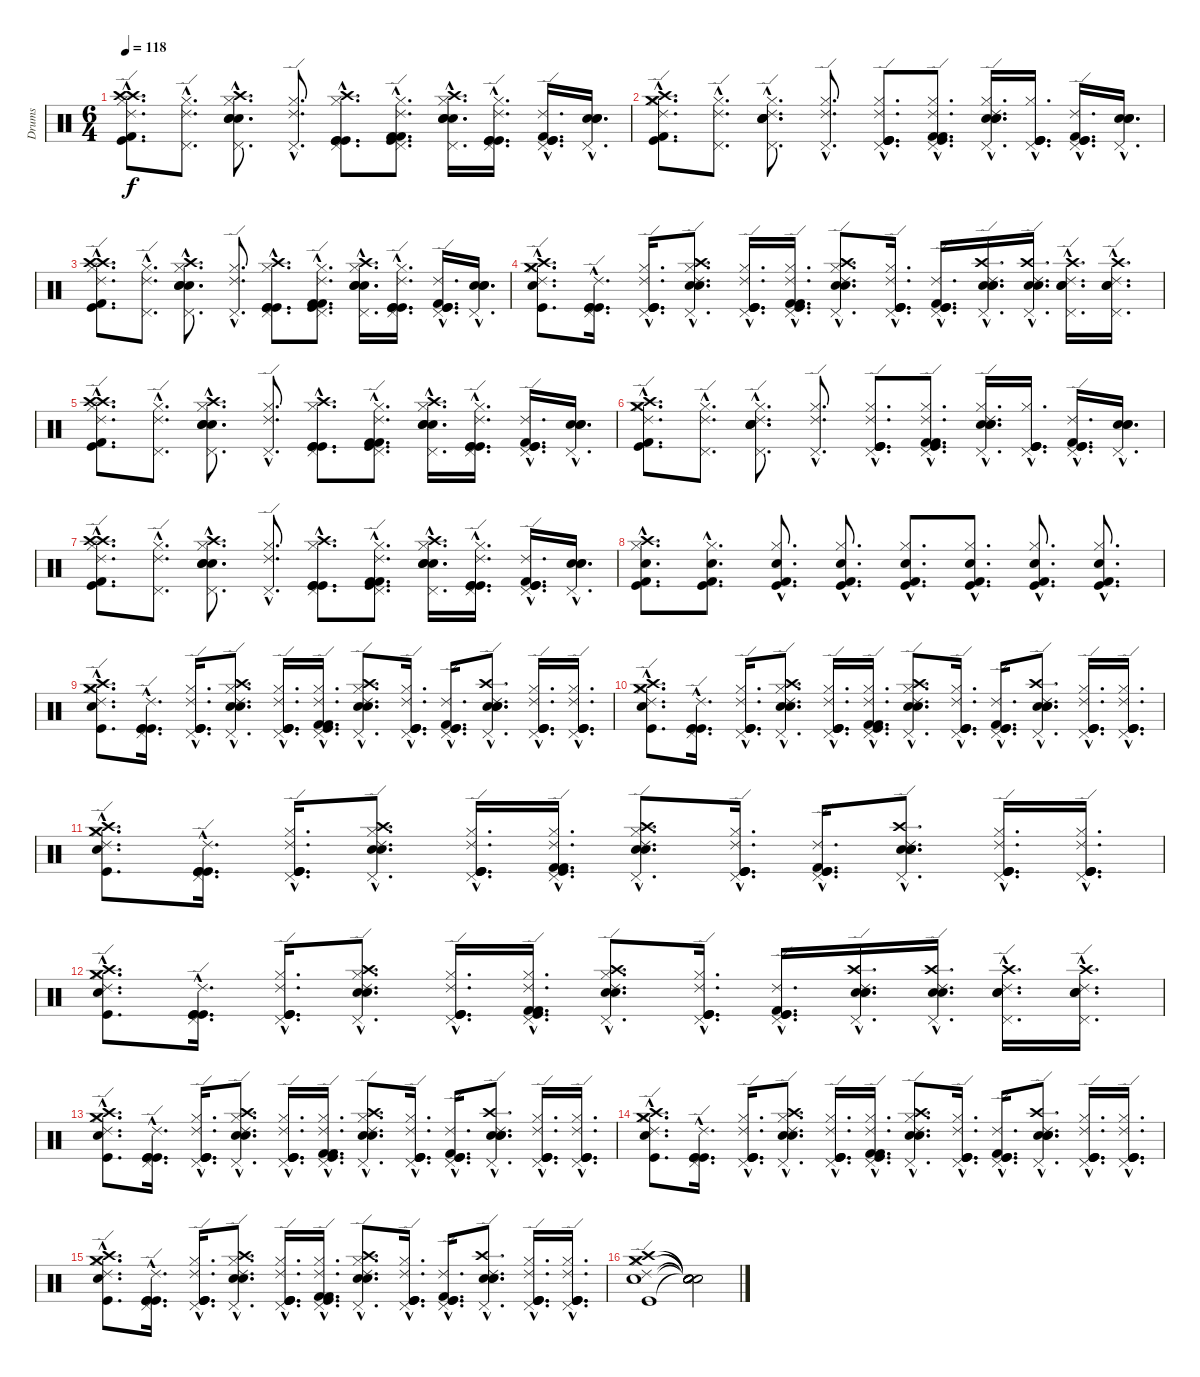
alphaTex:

\track ("Drums" "Drums") {instrument percussion}
\staff {score}
\articulation defaults
\ts (6 4)
\tempo 118
\clef neutral
\ks c
("Ride (edge) 2"{hac} "Crash high (hit)"{hac} "Kick (hit)"{hac} "Kick (hit) 2"{hac} "Hi-Hat (closed)"{hac} "Crash high (hit)"{hac}).8{d dy f} ("Pedal Hi-Hat (hit)"{hac} "Hi-Hat (closed)"{hac} "Ride (edge) 2"{hac}).8{d} ("Pedal Hi-Hat (hit)"{hac} "Electric Snare (hit)"{hac} "Hand Clap (hit)"{hac} "Hand Clap (hit)"{hac} "Hi-Hat (closed)"{hac} "Crash high (hit)"{hac}).8{d} ("Pedal Hi-Hat (hit)"{hac} "Hi-Hat (closed)"{hac} "Ride (edge) 2"{hac}).8{d} ("Pedal Hi-Hat (hit)"{hac} "Kick (hit)"{hac} "Kick (hit)"{hac} "Kick (hit)"{hac} "Hi-Hat (closed)"{hac} "Crash high (hit)"{hac}).8{d} ("Pedal Hi-Hat (hit)"{hac} "Kick (hit)"{hac} "Kick (hit) 2"{hac} "Kick (hit) 2"{hac} "Hi-Hat (closed)"{hac} "Ride (edge) 2"{hac}).8{d} ("Pedal Hi-Hat (hit)"{hac} "Hand Clap (hit)"{hac} "Hand Clap (hit)"{hac} "Electric Snare (hit)"{hac} "Hi-Hat (closed)"{hac} "Crash high (hit)"{hac}).16{d} ("Pedal Hi-Hat (hit)"{hac} "Kick (hit)"{hac} "Kick (hit)"{hac} "Kick (hit)"{hac} "Hi-Hat (closed)"{hac} "Ride (edge) 2"{hac}).16{d} ("Pedal Hi-Hat (hit)"{hac} "Kick (hit)"{hac} "Kick (hit) 2"{hac} "Kick (hit)"{hac} "Ride (edge) 2"{hac}).16{d} ("Pedal Hi-Hat (hit)"{hac} "Electric Snare (hit)"{hac} "Hand Clap (hit)"{hac} "Electric Snare (hit)"{hac}).16{d} |
("Ride (edge) 2"{hac} "Crash high (hit)"{hac} "Kick (hit)"{hac} "Kick (hit) 2"{hac} "Hi-Hat (closed)"{hac} "Crash medium (hit)"{hac}).8{d} ("Pedal Hi-Hat (hit)"{hac} "Hi-Hat (closed)"{hac} "Ride (edge) 2"{hac}).8{d} ("Pedal Hi-Hat (hit)"{hac} "Electric Snare (hit)"{hac} "Hand Clap (hit)"{hac} "Hand Clap (hit)"{hac} "Hi-Hat (closed)"{hac} "Ride (edge) 2"{hac}).8{d} ("Pedal Hi-Hat (hit)"{hac} "Hi-Hat (closed)"{hac} "Ride (edge) 2"{hac}).8{d} ("Pedal Hi-Hat (hit)"{hac} "Kick (hit)"{hac} "Kick (hit)"{hac} "Kick (hit)"{hac} "Hi-Hat (closed)"{hac} "Ride (edge) 2"{hac}).8{d} ("Pedal Hi-Hat (hit)"{hac} "Kick (hit)"{hac} "Kick (hit) 2"{hac} "Kick (hit) 2"{hac} "Hi-Hat (closed)"{hac} "Ride (edge) 2"{hac}).8{d} ("Pedal Hi-Hat (hit)"{hac} "Hand Clap (hit)"{hac} "Hand Clap (hit)"{hac} "Electric Snare (hit)"{hac} "Hi-Hat (closed)"{hac} "Ride (edge) 2"{hac}).16{d} ("Pedal Hi-Hat (hit)"{hac} "Kick (hit)"{hac} "Kick (hit)"{hac} "Kick (hit)"{hac} "Hi-Hat (closed)"{hac}).16{d} ("Pedal Hi-Hat (hit)"{hac} "Kick (hit)"{hac} "Kick (hit) 2"{hac} "Kick (hit)"{hac} "Ride (edge) 2"{hac}).16{d} ("Pedal Hi-Hat (hit)"{hac} "Electric Snare (hit)"{hac} "Hand Clap (hit)"{hac} "Electric Snare (hit)"{hac}).16{d} |
("Ride (edge) 2"{hac} "Crash high (hit)"{hac} "Kick (hit)"{hac} "Kick (hit) 2"{hac} "Hi-Hat (closed)"{hac} "Crash high (hit)"{hac}).8{d} ("Pedal Hi-Hat (hit)"{hac} "Hi-Hat (closed)"{hac} "Ride (edge) 2"{hac}).8{d} ("Pedal Hi-Hat (hit)"{hac} "Electric Snare (hit)"{hac} "Hand Clap (hit)"{hac} "Hand Clap (hit)"{hac} "Hi-Hat (closed)"{hac} "Crash high (hit)"{hac}).8{d} ("Pedal Hi-Hat (hit)"{hac} "Hi-Hat (closed)"{hac} "Ride (edge) 2"{hac}).8{d} ("Pedal Hi-Hat (hit)"{hac} "Kick (hit)"{hac} "Kick (hit)"{hac} "Kick (hit)"{hac} "Hi-Hat (closed)"{hac} "Crash high (hit)"{hac}).8{d} ("Pedal Hi-Hat (hit)"{hac} "Kick (hit)"{hac} "Kick (hit) 2"{hac} "Kick (hit) 2"{hac} "Hi-Hat (closed)"{hac} "Ride (edge) 2"{hac}).8{d} ("Pedal Hi-Hat (hit)"{hac} "Hand Clap (hit)"{hac} "Hand Clap (hit)"{hac} "Electric Snare (hit)"{hac} "Hi-Hat (closed)"{hac} "Crash high (hit)"{hac}).16{d} ("Pedal Hi-Hat (hit)"{hac} "Kick (hit)"{hac} "Kick (hit)"{hac} "Kick (hit)"{hac} "Hi-Hat (closed)"{hac} "Ride (edge) 2"{hac}).16{d} ("Pedal Hi-Hat (hit)"{hac} "Kick (hit)"{hac} "Kick (hit) 2"{hac} "Kick (hit)"{hac} "Ride (edge) 2"{hac}).16{d} ("Pedal Hi-Hat (hit)"{hac} "Electric Snare (hit)"{hac} "Hand Clap (hit)"{hac} "Electric Snare (hit)"{hac}).16{d} |
("Ride (edge) 2"{hac} "Crash high (hit)"{hac} "Kick (hit)"{hac} "Electric Snare (hit)"{hac} "Hi-Hat (closed)"{hac} "Crash medium (hit)"{hac}).8{d} ("Pedal Hi-Hat (hit)"{hac} "Kick (hit)"{hac} "Kick (hit)"{hac} "Kick (hit)"{hac} "Ride (edge) 2"{hac}).16{d} ("Pedal Hi-Hat (hit)"{hac} "Kick (hit)"{hac} "Kick (hit)"{hac} "Kick (hit)"{hac} "Hi-Hat (closed)"{hac} "Ride (edge) 2"{hac}).16{d} ("Pedal Hi-Hat (hit)"{hac} "Crash high (hit)"{hac} "Electric Snare (hit)"{hac} "Electric Snare (hit)"{hac} "Hi-Hat (closed)"{hac} "Ride (edge) 2"{hac}).8{d} ("Pedal Hi-Hat (hit)"{hac} "Kick (hit)"{hac} "Kick (hit)"{hac} "Kick (hit)"{hac} "Hi-Hat (closed)"{hac} "Ride (edge) 2"{hac}).16{d} ("Pedal Hi-Hat (hit)"{hac} "Kick (hit)"{hac} "Kick (hit) 2"{hac} "Kick (hit) 2"{hac} "Hi-Hat (closed)"{hac} "Ride (edge) 2"{hac}).16{d} ("Pedal Hi-Hat (hit)"{hac} "Crash high (hit)"{hac} "Hand Clap (hit)"{hac} "Electric Snare (hit)"{hac} "Hi-Hat (closed)"{hac} "Ride (edge) 2"{hac}).8{d} ("Pedal Hi-Hat (hit)"{hac} "Kick (hit)"{hac} "Kick (hit)"{hac} "Kick (hit)"{hac} "Hi-Hat (closed)"{hac} "Ride (edge) 2"{hac}).16{d} ("Pedal Hi-Hat (hit)"{hac} "Kick (hit)"{hac} "Kick (hit) 2"{hac} "Kick (hit)"{hac} "Ride (edge) 2"{hac}).16{d} ("Pedal Hi-Hat (hit)"{hac} "Electric Snare (hit)"{hac} "Hand Clap (hit)"{hac} "Electric Snare (hit)"{hac} "Crash high (hit)"{hac} "Ride (edge) 2"{hac}).16{d} ("Pedal Hi-Hat (hit)"{hac} "Electric Snare (hit)"{hac} "Electric Snare (hit)"{hac} "Crash high (hit)"{hac} "Ride (edge) 2"{hac}).16{d} ("Pedal Hi-Hat (hit)"{hac} "Electric Snare (hit)"{hac} "Electric Snare (hit)"{hac} "Crash high (hit)"{hac} "Ride (edge) 2"{hac}).16{d} ("Pedal Hi-Hat (hit)"{hac} "Electric Snare (hit)"{hac} "Electric Snare (hit)"{hac} "Crash high (hit)"{hac} "Ride (edge) 2"{hac}).16{d} |
("Ride (edge) 2"{hac} "Crash high (hit)"{hac} "Kick (hit)"{hac} "Kick (hit) 2"{hac} "Hi-Hat (closed)"{hac} "Crash high (hit)"{hac}).8{d} ("Pedal Hi-Hat (hit)"{hac} "Hi-Hat (closed)"{hac} "Ride (edge) 2"{hac}).8{d} ("Pedal Hi-Hat (hit)"{hac} "Electric Snare (hit)"{hac} "Hand Clap (hit)"{hac} "Hand Clap (hit)"{hac} "Hi-Hat (closed)"{hac} "Crash high (hit)"{hac}).8{d} ("Pedal Hi-Hat (hit)"{hac} "Hi-Hat (closed)"{hac} "Ride (edge) 2"{hac}).8{d} ("Pedal Hi-Hat (hit)"{hac} "Kick (hit)"{hac} "Kick (hit)"{hac} "Kick (hit)"{hac} "Hi-Hat (closed)"{hac} "Crash high (hit)"{hac}).8{d} ("Pedal Hi-Hat (hit)"{hac} "Kick (hit)"{hac} "Kick (hit) 2"{hac} "Kick (hit) 2"{hac} "Hi-Hat (closed)"{hac} "Ride (edge) 2"{hac}).8{d} ("Pedal Hi-Hat (hit)"{hac} "Hand Clap (hit)"{hac} "Hand Clap (hit)"{hac} "Electric Snare (hit)"{hac} "Hi-Hat (closed)"{hac} "Crash high (hit)"{hac}).16{d} ("Pedal Hi-Hat (hit)"{hac} "Kick (hit)"{hac} "Kick (hit)"{hac} "Kick (hit)"{hac} "Hi-Hat (closed)"{hac} "Ride (edge) 2"{hac}).16{d} ("Pedal Hi-Hat (hit)"{hac} "Kick (hit)"{hac} "Kick (hit) 2"{hac} "Kick (hit)"{hac} "Ride (edge) 2"{hac}).16{d} ("Pedal Hi-Hat (hit)"{hac} "Electric Snare (hit)"{hac} "Hand Clap (hit)"{hac} "Electric Snare (hit)"{hac}).16{d} |
("Ride (edge) 2"{hac} "Crash high (hit)"{hac} "Kick (hit)"{hac} "Kick (hit) 2"{hac} "Hi-Hat (closed)"{hac} "Crash medium (hit)"{hac}).8{d} ("Pedal Hi-Hat (hit)"{hac} "Hi-Hat (closed)"{hac} "Ride (edge) 2"{hac}).8{d} ("Pedal Hi-Hat (hit)"{hac} "Electric Snare (hit)"{hac} "Hand Clap (hit)"{hac} "Hand Clap (hit)"{hac} "Hi-Hat (closed)"{hac} "Ride (edge) 2"{hac}).8{d} ("Pedal Hi-Hat (hit)"{hac} "Hi-Hat (closed)"{hac} "Ride (edge) 2"{hac}).8{d} ("Pedal Hi-Hat (hit)"{hac} "Kick (hit)"{hac} "Kick (hit)"{hac} "Kick (hit)"{hac} "Hi-Hat (closed)"{hac} "Ride (edge) 2"{hac}).8{d} ("Pedal Hi-Hat (hit)"{hac} "Kick (hit)"{hac} "Kick (hit) 2"{hac} "Kick (hit) 2"{hac} "Hi-Hat (closed)"{hac} "Ride (edge) 2"{hac}).8{d} ("Pedal Hi-Hat (hit)"{hac} "Hand Clap (hit)"{hac} "Hand Clap (hit)"{hac} "Electric Snare (hit)"{hac} "Hi-Hat (closed)"{hac} "Ride (edge) 2"{hac}).16{d} ("Pedal Hi-Hat (hit)"{hac} "Kick (hit)"{hac} "Kick (hit)"{hac} "Kick (hit)"{hac} "Hi-Hat (closed)"{hac}).16{d} ("Pedal Hi-Hat (hit)"{hac} "Kick (hit)"{hac} "Kick (hit) 2"{hac} "Kick (hit)"{hac} "Ride (edge) 2"{hac}).16{d} ("Pedal Hi-Hat (hit)"{hac} "Electric Snare (hit)"{hac} "Hand Clap (hit)"{hac} "Electric Snare (hit)"{hac}).16{d} |
("Ride (edge) 2"{hac} "Crash high (hit)"{hac} "Kick (hit)"{hac} "Kick (hit) 2"{hac} "Hi-Hat (closed)"{hac} "Crash high (hit)"{hac}).8{d} ("Pedal Hi-Hat (hit)"{hac} "Hi-Hat (closed)"{hac} "Ride (edge) 2"{hac}).8{d} ("Pedal Hi-Hat (hit)"{hac} "Electric Snare (hit)"{hac} "Hand Clap (hit)"{hac} "Hand Clap (hit)"{hac} "Hi-Hat (closed)"{hac} "Crash high (hit)"{hac}).8{d} ("Pedal Hi-Hat (hit)"{hac} "Hi-Hat (closed)"{hac} "Ride (edge) 2"{hac}).8{d} ("Pedal Hi-Hat (hit)"{hac} "Kick (hit)"{hac} "Kick (hit)"{hac} "Kick (hit)"{hac} "Hi-Hat (closed)"{hac} "Crash high (hit)"{hac}).8{d} ("Pedal Hi-Hat (hit)"{hac} "Kick (hit)"{hac} "Kick (hit) 2"{hac} "Kick (hit) 2"{hac} "Hi-Hat (closed)"{hac} "Ride (edge) 2"{hac}).8{d} ("Pedal Hi-Hat (hit)"{hac} "Hand Clap (hit)"{hac} "Hand Clap (hit)"{hac} "Electric Snare (hit)"{hac} "Hi-Hat (closed)"{hac} "Crash high (hit)"{hac}).16{d} ("Pedal Hi-Hat (hit)"{hac} "Kick (hit)"{hac} "Kick (hit)"{hac} "Kick (hit)"{hac} "Hi-Hat (closed)"{hac} "Ride (edge) 2"{hac}).16{d} ("Pedal Hi-Hat (hit)"{hac} "Kick (hit)"{hac} "Kick (hit) 2"{hac} "Kick (hit)"{hac} "Ride (edge) 2"{hac}).16{d} ("Pedal Hi-Hat (hit)"{hac} "Electric Snare (hit)"{hac} "Hand Clap (hit)"{hac} "Electric Snare (hit)"{hac}).16{d} |
("Electric Snare (hit)"{hac} "Kick (hit)"{hac} "Kick (hit) 2"{hac} "Hi-Hat (closed)"{hac} "Crash high (hit)"{hac}).8{d} ("Electric Snare (hit)"{hac} "Kick (hit)"{hac} "Kick (hit) 2"{hac} "Hi-Hat (closed)"{hac}).8{d} ("Electric Snare (hit)"{hac} "Kick (hit)"{hac} "Kick (hit) 2"{hac} "Hi-Hat (closed)"{hac}).8{d} ("Electric Snare (hit)"{hac} "Kick (hit)"{hac} "Kick (hit) 2"{hac} "Hi-Hat (closed)"{hac}).8{d} ("Electric Snare (hit)"{hac} "Kick (hit)"{hac} "Kick (hit) 2"{hac} "Hi-Hat (closed)"{hac}).8{d} ("Electric Snare (hit)"{hac} "Kick (hit)"{hac} "Kick (hit) 2"{hac} "Hi-Hat (closed)"{hac}).8{d} ("Electric Snare (hit)"{hac} "Kick (hit)"{hac} "Kick (hit) 2"{hac} "Hi-Hat (closed)"{hac}).8{d} ("Electric Snare (hit)"{hac} "Kick (hit)"{hac} "Kick (hit) 2"{hac} "Hi-Hat (closed)"{hac}).8{d} |
("Ride (edge) 2"{hac} "Crash high (hit)"{hac} "Kick (hit)"{hac} "Electric Snare (hit)"{hac} "Hi-Hat (closed)"{hac} "Crash medium (hit)"{hac}).8{d} ("Pedal Hi-Hat (hit)"{hac} "Kick (hit)"{hac} "Kick (hit)"{hac} "Kick (hit)"{hac} "Ride (edge) 2"{hac}).16{d} ("Pedal Hi-Hat (hit)"{hac} "Kick (hit)"{hac} "Kick (hit)"{hac} "Kick (hit)"{hac} "Hi-Hat (closed)"{hac} "Ride (edge) 2"{hac}).16{d} ("Pedal Hi-Hat (hit)"{hac} "Crash high (hit)"{hac} "Electric Snare (hit)"{hac} "Electric Snare (hit)"{hac} "Hi-Hat (closed)"{hac} "Ride (edge) 2"{hac}).8{d} ("Pedal Hi-Hat (hit)"{hac} "Kick (hit)"{hac} "Kick (hit)"{hac} "Kick (hit)"{hac} "Hi-Hat (closed)"{hac} "Ride (edge) 2"{hac}).16{d} ("Pedal Hi-Hat (hit)"{hac} "Kick (hit)"{hac} "Kick (hit) 2"{hac} "Kick (hit) 2"{hac} "Hi-Hat (closed)"{hac} "Ride (edge) 2"{hac}).16{d} ("Pedal Hi-Hat (hit)"{hac} "Crash high (hit)"{hac} "Hand Clap (hit)"{hac} "Electric Snare (hit)"{hac} "Hi-Hat (closed)"{hac} "Ride (edge) 2"{hac}).8{d} ("Pedal Hi-Hat (hit)"{hac} "Kick (hit)"{hac} "Kick (hit)"{hac} "Kick (hit)"{hac} "Hi-Hat (closed)"{hac} "Ride (edge) 2"{hac}).16{d} ("Pedal Hi-Hat (hit)"{hac} "Kick (hit)"{hac} "Kick (hit) 2"{hac} "Kick (hit)"{hac} "Ride (edge) 2"{hac}).16{d} ("Pedal Hi-Hat (hit)"{hac} "Electric Snare (hit)"{hac} "Electric Snare (hit)"{hac} "Electric Snare (hit)"{hac} "Crash high (hit)"{hac} "Ride (edge) 2"{hac}).8{d} ("Pedal Hi-Hat (hit)"{hac} "Kick (hit)"{hac} "Kick (hit)"{hac} "Hi-Hat (closed)"{hac} "Kick (hit)"{hac} "Ride (edge) 2"{hac}).16{d} ("Pedal Hi-Hat (hit)"{hac} "Kick (hit)"{hac} "Kick (hit)"{hac} "Hi-Hat (closed)"{hac} "Kick (hit)"{hac} "Ride (edge) 2"{hac}).16{d} |
("Ride (edge) 2"{hac} "Crash high (hit)"{hac} "Kick (hit)"{hac} "Electric Snare (hit)"{hac} "Hi-Hat (closed)"{hac} "Crash medium (hit)"{hac}).8{d} ("Pedal Hi-Hat (hit)"{hac} "Kick (hit)"{hac} "Kick (hit)"{hac} "Kick (hit)"{hac} "Ride (edge) 2"{hac}).16{d} ("Pedal Hi-Hat (hit)"{hac} "Kick (hit)"{hac} "Kick (hit)"{hac} "Kick (hit)"{hac} "Hi-Hat (closed)"{hac} "Ride (edge) 2"{hac}).16{d} ("Pedal Hi-Hat (hit)"{hac} "Crash high (hit)"{hac} "Electric Snare (hit)"{hac} "Electric Snare (hit)"{hac} "Hi-Hat (closed)"{hac} "Ride (edge) 2"{hac}).8{d} ("Pedal Hi-Hat (hit)"{hac} "Kick (hit)"{hac} "Kick (hit)"{hac} "Kick (hit)"{hac} "Hi-Hat (closed)"{hac} "Ride (edge) 2"{hac}).16{d} ("Pedal Hi-Hat (hit)"{hac} "Kick (hit)"{hac} "Kick (hit) 2"{hac} "Kick (hit) 2"{hac} "Hi-Hat (closed)"{hac} "Ride (edge) 2"{hac}).16{d} ("Pedal Hi-Hat (hit)"{hac} "Crash high (hit)"{hac} "Hand Clap (hit)"{hac} "Electric Snare (hit)"{hac} "Hi-Hat (closed)"{hac} "Ride (edge) 2"{hac}).8{d} ("Pedal Hi-Hat (hit)"{hac} "Kick (hit)"{hac} "Kick (hit)"{hac} "Kick (hit)"{hac} "Hi-Hat (closed)"{hac} "Ride (edge) 2"{hac}).16{d} ("Pedal Hi-Hat (hit)"{hac} "Kick (hit)"{hac} "Kick (hit) 2"{hac} "Kick (hit)"{hac} "Ride (edge) 2"{hac}).16{d} ("Pedal Hi-Hat (hit)"{hac} "Electric Snare (hit)"{hac} "Electric Snare (hit)"{hac} "Electric Snare (hit)"{hac} "Crash high (hit)"{hac} "Ride (edge) 2"{hac}).8{d} ("Pedal Hi-Hat (hit)"{hac} "Kick (hit)"{hac} "Kick (hit)"{hac} "Hi-Hat (closed)"{hac} "Kick (hit)"{hac} "Ride (edge) 2"{hac}).16{d} ("Pedal Hi-Hat (hit)"{hac} "Kick (hit)"{hac} "Kick (hit)"{hac} "Hi-Hat (closed)"{hac} "Kick (hit)"{hac} "Ride (edge) 2"{hac}).16{d} |
("Ride (edge) 2"{hac} "Crash high (hit)"{hac} "Kick (hit)"{hac} "Electric Snare (hit)"{hac} "Hi-Hat (closed)"{hac} "Crash medium (hit)"{hac}).8{d} ("Pedal Hi-Hat (hit)"{hac} "Kick (hit)"{hac} "Kick (hit)"{hac} "Kick (hit)"{hac} "Ride (edge) 2"{hac}).16{d} ("Pedal Hi-Hat (hit)"{hac} "Kick (hit)"{hac} "Kick (hit)"{hac} "Kick (hit)"{hac} "Hi-Hat (closed)"{hac} "Ride (edge) 2"{hac}).16{d} ("Pedal Hi-Hat (hit)"{hac} "Crash high (hit)"{hac} "Electric Snare (hit)"{hac} "Electric Snare (hit)"{hac} "Hi-Hat (closed)"{hac} "Ride (edge) 2"{hac}).8{d} ("Pedal Hi-Hat (hit)"{hac} "Kick (hit)"{hac} "Kick (hit)"{hac} "Kick (hit)"{hac} "Hi-Hat (closed)"{hac} "Ride (edge) 2"{hac}).16{d} ("Pedal Hi-Hat (hit)"{hac} "Kick (hit)"{hac} "Kick (hit) 2"{hac} "Kick (hit) 2"{hac} "Hi-Hat (closed)"{hac} "Ride (edge) 2"{hac}).16{d} ("Pedal Hi-Hat (hit)"{hac} "Crash high (hit)"{hac} "Hand Clap (hit)"{hac} "Electric Snare (hit)"{hac} "Hi-Hat (closed)"{hac} "Ride (edge) 2"{hac}).8{d} ("Pedal Hi-Hat (hit)"{hac} "Kick (hit)"{hac} "Kick (hit)"{hac} "Kick (hit)"{hac} "Hi-Hat (closed)"{hac} "Ride (edge) 2"{hac}).16{d} ("Pedal Hi-Hat (hit)"{hac} "Kick (hit)"{hac} "Kick (hit) 2"{hac} "Kick (hit)"{hac} "Ride (edge) 2"{hac}).16{d} ("Pedal Hi-Hat (hit)"{hac} "Electric Snare (hit)"{hac} "Electric Snare (hit)"{hac} "Electric Snare (hit)"{hac} "Crash high (hit)"{hac} "Ride (edge) 2"{hac}).8{d} ("Pedal Hi-Hat (hit)"{hac} "Kick (hit)"{hac} "Kick (hit)"{hac} "Hi-Hat (closed)"{hac} "Kick (hit)"{hac} "Ride (edge) 2"{hac}).16{d} ("Pedal Hi-Hat (hit)"{hac} "Kick (hit)"{hac} "Kick (hit)"{hac} "Hi-Hat (closed)"{hac} "Kick (hit)"{hac} "Ride (edge) 2"{hac}).16{d} |
("Ride (edge) 2"{hac} "Crash high (hit)"{hac} "Kick (hit)"{hac} "Electric Snare (hit)"{hac} "Hi-Hat (closed)"{hac} "Crash medium (hit)"{hac}).8{d} ("Pedal Hi-Hat (hit)"{hac} "Kick (hit)"{hac} "Kick (hit)"{hac} "Kick (hit)"{hac} "Ride (edge) 2"{hac}).16{d} ("Pedal Hi-Hat (hit)"{hac} "Kick (hit)"{hac} "Kick (hit)"{hac} "Kick (hit)"{hac} "Hi-Hat (closed)"{hac} "Ride (edge) 2"{hac}).16{d} ("Pedal Hi-Hat (hit)"{hac} "Crash high (hit)"{hac} "Electric Snare (hit)"{hac} "Electric Snare (hit)"{hac} "Hi-Hat (closed)"{hac} "Ride (edge) 2"{hac}).8{d} ("Pedal Hi-Hat (hit)"{hac} "Kick (hit)"{hac} "Kick (hit)"{hac} "Kick (hit)"{hac} "Hi-Hat (closed)"{hac} "Ride (edge) 2"{hac}).16{d} ("Pedal Hi-Hat (hit)"{hac} "Kick (hit)"{hac} "Kick (hit) 2"{hac} "Kick (hit) 2"{hac} "Hi-Hat (closed)"{hac} "Ride (edge) 2"{hac}).16{d} ("Pedal Hi-Hat (hit)"{hac} "Crash high (hit)"{hac} "Hand Clap (hit)"{hac} "Electric Snare (hit)"{hac} "Hi-Hat (closed)"{hac} "Ride (edge) 2"{hac}).8{d} ("Pedal Hi-Hat (hit)"{hac} "Kick (hit)"{hac} "Kick (hit)"{hac} "Kick (hit)"{hac} "Hi-Hat (closed)"{hac} "Ride (edge) 2"{hac}).16{d} ("Pedal Hi-Hat (hit)"{hac} "Kick (hit)"{hac} "Kick (hit) 2"{hac} "Kick (hit)"{hac} "Ride (edge) 2"{hac}).16{d} ("Pedal Hi-Hat (hit)"{hac} "Electric Snare (hit)"{hac} "Hand Clap (hit)"{hac} "Electric Snare (hit)"{hac} "Crash high (hit)"{hac} "Ride (edge) 2"{hac}).16{d} ("Pedal Hi-Hat (hit)"{hac} "Electric Snare (hit)"{hac} "Electric Snare (hit)"{hac} "Crash high (hit)"{hac} "Ride (edge) 2"{hac}).16{d} ("Pedal Hi-Hat (hit)"{hac} "Electric Snare (hit)"{hac} "Electric Snare (hit)"{hac} "Crash high (hit)"{hac} "Ride (edge) 2"{hac}).16{d} ("Pedal Hi-Hat (hit)"{hac} "Electric Snare (hit)"{hac} "Electric Snare (hit)"{hac} "Crash high (hit)"{hac} "Ride (edge) 2"{hac}).16{d} |
("Ride (edge) 2"{hac} "Crash high (hit)"{hac} "Kick (hit)"{hac} "Electric Snare (hit)"{hac} "Hi-Hat (closed)"{hac} "Crash medium (hit)"{hac}).8{d} ("Pedal Hi-Hat (hit)"{hac} "Kick (hit)"{hac} "Kick (hit)"{hac} "Kick (hit)"{hac} "Ride (edge) 2"{hac}).16{d} ("Pedal Hi-Hat (hit)"{hac} "Kick (hit)"{hac} "Kick (hit)"{hac} "Kick (hit)"{hac} "Hi-Hat (closed)"{hac} "Ride (edge) 2"{hac}).16{d} ("Pedal Hi-Hat (hit)"{hac} "Crash high (hit)"{hac} "Electric Snare (hit)"{hac} "Electric Snare (hit)"{hac} "Hi-Hat (closed)"{hac} "Ride (edge) 2"{hac}).8{d} ("Pedal Hi-Hat (hit)"{hac} "Kick (hit)"{hac} "Kick (hit)"{hac} "Kick (hit)"{hac} "Hi-Hat (closed)"{hac} "Ride (edge) 2"{hac}).16{d} ("Pedal Hi-Hat (hit)"{hac} "Kick (hit)"{hac} "Kick (hit) 2"{hac} "Kick (hit) 2"{hac} "Hi-Hat (closed)"{hac} "Ride (edge) 2"{hac}).16{d} ("Pedal Hi-Hat (hit)"{hac} "Crash high (hit)"{hac} "Hand Clap (hit)"{hac} "Electric Snare (hit)"{hac} "Hi-Hat (closed)"{hac} "Ride (edge) 2"{hac}).8{d} ("Pedal Hi-Hat (hit)"{hac} "Kick (hit)"{hac} "Kick (hit)"{hac} "Kick (hit)"{hac} "Hi-Hat (closed)"{hac} "Ride (edge) 2"{hac}).16{d} ("Pedal Hi-Hat (hit)"{hac} "Kick (hit)"{hac} "Kick (hit) 2"{hac} "Kick (hit)"{hac} "Ride (edge) 2"{hac}).16{d} ("Pedal Hi-Hat (hit)"{hac} "Electric Snare (hit)"{hac} "Electric Snare (hit)"{hac} "Electric Snare (hit)"{hac} "Crash high (hit)"{hac} "Ride (edge) 2"{hac}).8{d} ("Pedal Hi-Hat (hit)"{hac} "Kick (hit)"{hac} "Kick (hit)"{hac} "Hi-Hat (closed)"{hac} "Kick (hit)"{hac} "Ride (edge) 2"{hac}).16{d} ("Pedal Hi-Hat (hit)"{hac} "Kick (hit)"{hac} "Kick (hit)"{hac} "Hi-Hat (closed)"{hac} "Kick (hit)"{hac} "Ride (edge) 2"{hac}).16{d} |
("Ride (edge) 2"{hac} "Crash high (hit)"{hac} "Kick (hit)"{hac} "Electric Snare (hit)"{hac} "Hi-Hat (closed)"{hac} "Crash medium (hit)"{hac}).8{d} ("Pedal Hi-Hat (hit)"{hac} "Kick (hit)"{hac} "Kick (hit)"{hac} "Kick (hit)"{hac} "Ride (edge) 2"{hac}).16{d} ("Pedal Hi-Hat (hit)"{hac} "Kick (hit)"{hac} "Kick (hit)"{hac} "Kick (hit)"{hac} "Hi-Hat (closed)"{hac} "Ride (edge) 2"{hac}).16{d} ("Pedal Hi-Hat (hit)"{hac} "Crash high (hit)"{hac} "Electric Snare (hit)"{hac} "Electric Snare (hit)"{hac} "Hi-Hat (closed)"{hac} "Ride (edge) 2"{hac}).8{d} ("Pedal Hi-Hat (hit)"{hac} "Kick (hit)"{hac} "Kick (hit)"{hac} "Kick (hit)"{hac} "Hi-Hat (closed)"{hac} "Ride (edge) 2"{hac}).16{d} ("Pedal Hi-Hat (hit)"{hac} "Kick (hit)"{hac} "Kick (hit) 2"{hac} "Kick (hit) 2"{hac} "Hi-Hat (closed)"{hac} "Ride (edge) 2"{hac}).16{d} ("Pedal Hi-Hat (hit)"{hac} "Crash high (hit)"{hac} "Hand Clap (hit)"{hac} "Electric Snare (hit)"{hac} "Hi-Hat (closed)"{hac} "Ride (edge) 2"{hac}).8{d} ("Pedal Hi-Hat (hit)"{hac} "Kick (hit)"{hac} "Kick (hit)"{hac} "Kick (hit)"{hac} "Hi-Hat (closed)"{hac} "Ride (edge) 2"{hac}).16{d} ("Pedal Hi-Hat (hit)"{hac} "Kick (hit)"{hac} "Kick (hit) 2"{hac} "Kick (hit)"{hac} "Ride (edge) 2"{hac}).16{d} ("Pedal Hi-Hat (hit)"{hac} "Electric Snare (hit)"{hac} "Electric Snare (hit)"{hac} "Electric Snare (hit)"{hac} "Crash high (hit)"{hac} "Ride (edge) 2"{hac}).8{d} ("Pedal Hi-Hat (hit)"{hac} "Kick (hit)"{hac} "Kick (hit)"{hac} "Hi-Hat (closed)"{hac} "Kick (hit)"{hac} "Ride (edge) 2"{hac}).16{d} ("Pedal Hi-Hat (hit)"{hac} "Kick (hit)"{hac} "Kick (hit)"{hac} "Hi-Hat (closed)"{hac} "Kick (hit)"{hac} "Ride (edge) 2"{hac}).16{d} |
("Ride (edge) 2"{hac} "Crash high (hit)"{hac} "Kick (hit)"{hac} "Electric Snare (hit)"{hac} "Hi-Hat (closed)"{hac} "Crash medium (hit)"{hac}).8{d} ("Pedal Hi-Hat (hit)"{hac} "Kick (hit)"{hac} "Kick (hit)"{hac} "Kick (hit)"{hac} "Ride (edge) 2"{hac}).16{d} ("Pedal Hi-Hat (hit)"{hac} "Kick (hit)"{hac} "Kick (hit)"{hac} "Kick (hit)"{hac} "Hi-Hat (closed)"{hac} "Ride (edge) 2"{hac}).16{d} ("Pedal Hi-Hat (hit)"{hac} "Crash high (hit)"{hac} "Electric Snare (hit)"{hac} "Electric Snare (hit)"{hac} "Hi-Hat (closed)"{hac} "Ride (edge) 2"{hac}).8{d} ("Pedal Hi-Hat (hit)"{hac} "Kick (hit)"{hac} "Kick (hit)"{hac} "Kick (hit)"{hac} "Hi-Hat (closed)"{hac} "Ride (edge) 2"{hac}).16{d} ("Pedal Hi-Hat (hit)"{hac} "Kick (hit)"{hac} "Kick (hit) 2"{hac} "Kick (hit) 2"{hac} "Hi-Hat (closed)"{hac} "Ride (edge) 2"{hac}).16{d} ("Pedal Hi-Hat (hit)"{hac} "Crash high (hit)"{hac} "Hand Clap (hit)"{hac} "Electric Snare (hit)"{hac} "Hi-Hat (closed)"{hac} "Ride (edge) 2"{hac}).8{d} ("Pedal Hi-Hat (hit)"{hac} "Kick (hit)"{hac} "Kick (hit)"{hac} "Kick (hit)"{hac} "Hi-Hat (closed)"{hac} "Ride (edge) 2"{hac}).16{d} ("Pedal Hi-Hat (hit)"{hac} "Kick (hit)"{hac} "Kick (hit) 2"{hac} "Kick (hit)"{hac} "Ride (edge) 2"{hac}).16{d} ("Pedal Hi-Hat (hit)"{hac} "Electric Snare (hit)"{hac} "Electric Snare (hit)"{hac} "Electric Snare (hit)"{hac} "Crash high (hit)"{hac} "Ride (edge) 2"{hac}).8{d} ("Pedal Hi-Hat (hit)"{hac} "Kick (hit)"{hac} "Kick (hit)"{hac} "Hi-Hat (closed)"{hac} "Kick (hit)"{hac} "Ride (edge) 2"{hac}).16{d} ("Pedal Hi-Hat (hit)"{hac} "Kick (hit)"{hac} "Kick (hit)"{hac} "Hi-Hat (closed)"{hac} "Kick (hit)"{hac} "Ride (edge) 2"{hac}).16{d} |
("Ride (edge) 2" "Crash high (hit)" "Kick (hit)" "Electric Snare (hit)" "Hi-Hat (closed)" "Crash medium (hit)").1 ("Snare (hit)"{t} "Snare (hit)"{t} "Snare (hit)"{t} "Snare (hit)"{t} "Snare (hit)"{t} "Snare (hit)"{t}).2
